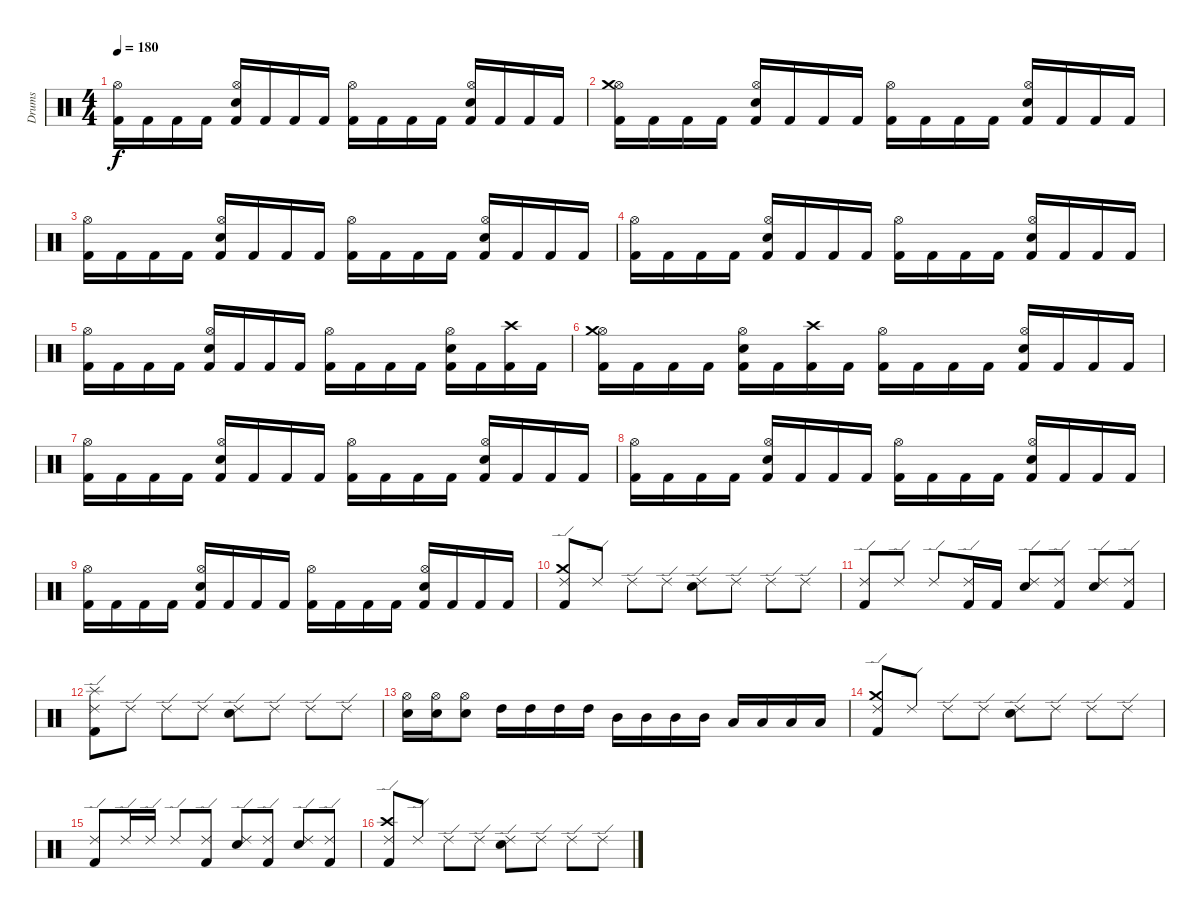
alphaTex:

\track ("Drums" "Drums") {instrument percussion}
\staff {score}
\articulation defaults
\ts (4 4)
\tempo 180
\clef neutral
\ks c
("Kick (hit) 2" "Hi-Hat (open)").16{dy f} "Kick (hit) 2".16 "Kick (hit) 2".16 "Kick (hit) 2".16 ("Kick (hit) 2" "Snare (hit) 2" "Hi-Hat (open)").16 "Kick (hit) 2".16 "Kick (hit) 2".16 "Kick (hit) 2".16 ("Kick (hit) 2" "Hi-Hat (open)").16 "Kick (hit) 2".16 "Kick (hit) 2".16 "Kick (hit) 2".16 ("Kick (hit) 2" "Snare (hit) 2" "Hi-Hat (open)").16 "Kick (hit) 2".16 "Kick (hit) 2".16 "Kick (hit) 2".16 |
("Kick (hit) 2" "Hi-Hat (open)" "Crash medium (hit)").16 "Kick (hit) 2".16 "Kick (hit) 2".16 "Kick (hit) 2".16 ("Kick (hit) 2" "Snare (hit) 2" "Hi-Hat (open)").16 "Kick (hit) 2".16 "Kick (hit) 2".16 "Kick (hit) 2".16 ("Kick (hit) 2" "Hi-Hat (open)").16 "Kick (hit) 2".16 "Kick (hit) 2".16 "Kick (hit) 2".16 ("Kick (hit) 2" "Snare (hit) 2" "Hi-Hat (open)").16 "Kick (hit) 2".16 "Kick (hit) 2".16 "Kick (hit) 2".16 |
("Kick (hit) 2" "Hi-Hat (open)").16 "Kick (hit) 2".16 "Kick (hit) 2".16 "Kick (hit) 2".16 ("Kick (hit) 2" "Snare (hit) 2" "Hi-Hat (open)").16 "Kick (hit) 2".16 "Kick (hit) 2".16 "Kick (hit) 2".16 ("Kick (hit) 2" "Hi-Hat (open)").16 "Kick (hit) 2".16 "Kick (hit) 2".16 "Kick (hit) 2".16 ("Kick (hit) 2" "Snare (hit) 2" "Hi-Hat (open)").16 "Kick (hit) 2".16 "Kick (hit) 2".16 "Kick (hit) 2".16 |
("Kick (hit) 2" "Hi-Hat (open)").16 "Kick (hit) 2".16 "Kick (hit) 2".16 "Kick (hit) 2".16 ("Kick (hit) 2" "Snare (hit) 2" "Hi-Hat (open)").16 "Kick (hit) 2".16 "Kick (hit) 2".16 "Kick (hit) 2".16 ("Kick (hit) 2" "Hi-Hat (open)").16 "Kick (hit) 2".16 "Kick (hit) 2".16 "Kick (hit) 2".16 ("Kick (hit) 2" "Snare (hit) 2" "Hi-Hat (open)").16 "Kick (hit) 2".16 "Kick (hit) 2".16 "Kick (hit) 2".16 |
("Kick (hit) 2" "Hi-Hat (open)").16 "Kick (hit) 2".16 "Kick (hit) 2".16 "Kick (hit) 2".16 ("Kick (hit) 2" "Snare (hit) 2" "Hi-Hat (open)").16 "Kick (hit) 2".16 "Kick (hit) 2".16 "Kick (hit) 2".16 ("Kick (hit) 2" "Hi-Hat (open)").16 "Kick (hit) 2".16 "Kick (hit) 2".16 "Kick (hit) 2".16 ("Kick (hit) 2" "Snare (hit) 2" "Hi-Hat (open)").16 "Kick (hit) 2".16 ("Kick (hit) 2" "Crash high (hit)").16 "Kick (hit) 2".16 |
("Kick (hit) 2" "Hi-Hat (open)" "Crash medium (hit)").16 "Kick (hit) 2".16 "Kick (hit) 2".16 "Kick (hit) 2".16 ("Kick (hit) 2" "Snare (hit) 2" "Hi-Hat (open)").16 "Kick (hit) 2".16 ("Kick (hit) 2" "Crash high (hit)").16 "Kick (hit) 2".16 ("Kick (hit) 2" "Hi-Hat (open)").16 "Kick (hit) 2".16 "Kick (hit) 2".16 "Kick (hit) 2".16 ("Kick (hit) 2" "Snare (hit) 2" "Hi-Hat (open)").16 "Kick (hit) 2".16 "Kick (hit) 2".16 "Kick (hit) 2".16 |
("Kick (hit) 2" "Hi-Hat (open)").16 "Kick (hit) 2".16 "Kick (hit) 2".16 "Kick (hit) 2".16 ("Kick (hit) 2" "Snare (hit) 2" "Hi-Hat (open)").16 "Kick (hit) 2".16 "Kick (hit) 2".16 "Kick (hit) 2".16 ("Kick (hit) 2" "Hi-Hat (open)").16 "Kick (hit) 2".16 "Kick (hit) 2".16 "Kick (hit) 2".16 ("Kick (hit) 2" "Snare (hit) 2" "Hi-Hat (open)").16 "Kick (hit) 2".16 "Kick (hit) 2".16 "Kick (hit) 2".16 |
("Kick (hit) 2" "Hi-Hat (open)").16 "Kick (hit) 2".16 "Kick (hit) 2".16 "Kick (hit) 2".16 ("Kick (hit) 2" "Snare (hit) 2" "Hi-Hat (open)").16 "Kick (hit) 2".16 "Kick (hit) 2".16 "Kick (hit) 2".16 ("Kick (hit) 2" "Hi-Hat (open)").16 "Kick (hit) 2".16 "Kick (hit) 2".16 "Kick (hit) 2".16 ("Kick (hit) 2" "Snare (hit) 2" "Hi-Hat (open)").16 "Kick (hit) 2".16 "Kick (hit) 2".16 "Kick (hit) 2".16 |
("Kick (hit) 2" "Hi-Hat (open)").16 "Kick (hit) 2".16 "Kick (hit) 2".16 "Kick (hit) 2".16 ("Kick (hit) 2" "Snare (hit) 2" "Hi-Hat (open)").16 "Kick (hit) 2".16 "Kick (hit) 2".16 "Kick (hit) 2".16 ("Kick (hit) 2" "Hi-Hat (open)").16 "Kick (hit) 2".16 "Kick (hit) 2".16 "Kick (hit) 2".16 ("Kick (hit) 2" "Snare (hit) 2" "Hi-Hat (open)").16 "Kick (hit) 2".16 "Kick (hit) 2".16 "Kick (hit) 2".16 |
("Kick (hit) 2" "Ride (edge) 2" "Crash medium (hit)").8 "Ride (edge) 2".8 "Ride (edge) 2".8 "Ride (edge) 2".8 ("Snare (hit) 2" "Ride (edge) 2").8 "Ride (edge) 2".8 "Ride (edge) 2".8 "Ride (edge) 2".8 |
("Kick (hit) 2" "Ride (edge) 2").8 "Ride (edge) 2".8 "Ride (edge) 2".8 ("Kick (hit) 2" "Ride (edge) 2").16 "Kick (hit) 2".16 ("Snare (hit) 2" "Ride (edge) 2").8 ("Kick (hit) 2" "Ride (edge) 2").8 ("Snare (hit) 2" "Ride (edge) 2").8 ("Kick (hit) 2" "Ride (edge) 2").8 |
("Kick (hit) 2" "Ride (edge) 2" "Splash (hit)").8 "Ride (edge) 2".8 "Ride (edge) 2".8 "Ride (edge) 2".8 ("Snare (hit) 2" "Ride (edge) 2").8 "Ride (edge) 2".8 "Ride (edge) 2".8 "Ride (edge) 2".8 |
("Snare (hit) 2" "Hi-Hat (open)").16 ("Snare (hit) 2" "Hi-Hat (open)").16 ("Snare (hit) 2" "Hi-Hat (open)").8 "High Tom (hit)".16 "High Tom (hit)".16 "High Tom (hit)".16 "High Tom (hit)".16 "Mid Tom (hit)".16 "Mid Tom (hit)".16 "Mid Tom (hit)".16 "Mid Tom (hit)".16 "Low Tom (hit)".16 "Low Tom (hit)".16 "Low Tom (hit)".16 "Low Tom (hit)".16 |
("Kick (hit) 2" "Ride (edge) 2" "Crash medium (hit)").8 "Ride (edge) 2".8 "Ride (edge) 2".8 "Ride (edge) 2".8 ("Snare (hit) 2" "Ride (edge) 2").8 "Ride (edge) 2".8 "Ride (edge) 2".8 "Ride (edge) 2".8 |
("Kick (hit) 2" "Ride (edge) 2").8 "Ride (edge) 2".16 "Ride (edge) 2".16 "Ride (edge) 2".8 ("Kick (hit) 2" "Ride (edge) 2").8 ("Snare (hit) 2" "Ride (edge) 2").8 ("Kick (hit) 2" "Ride (edge) 2").8 ("Snare (hit) 2" "Ride (edge) 2").8 ("Kick (hit) 2" "Ride (edge) 2").8 |
("Kick (hit) 2" "Ride (edge) 2" "Crash high (hit)").8 "Ride (edge) 2".8 "Ride (edge) 2".8 "Ride (edge) 2".8 ("Snare (hit) 2" "Ride (edge) 2").8 "Ride (edge) 2".8 "Ride (edge) 2".8 "Ride (edge) 2".8
